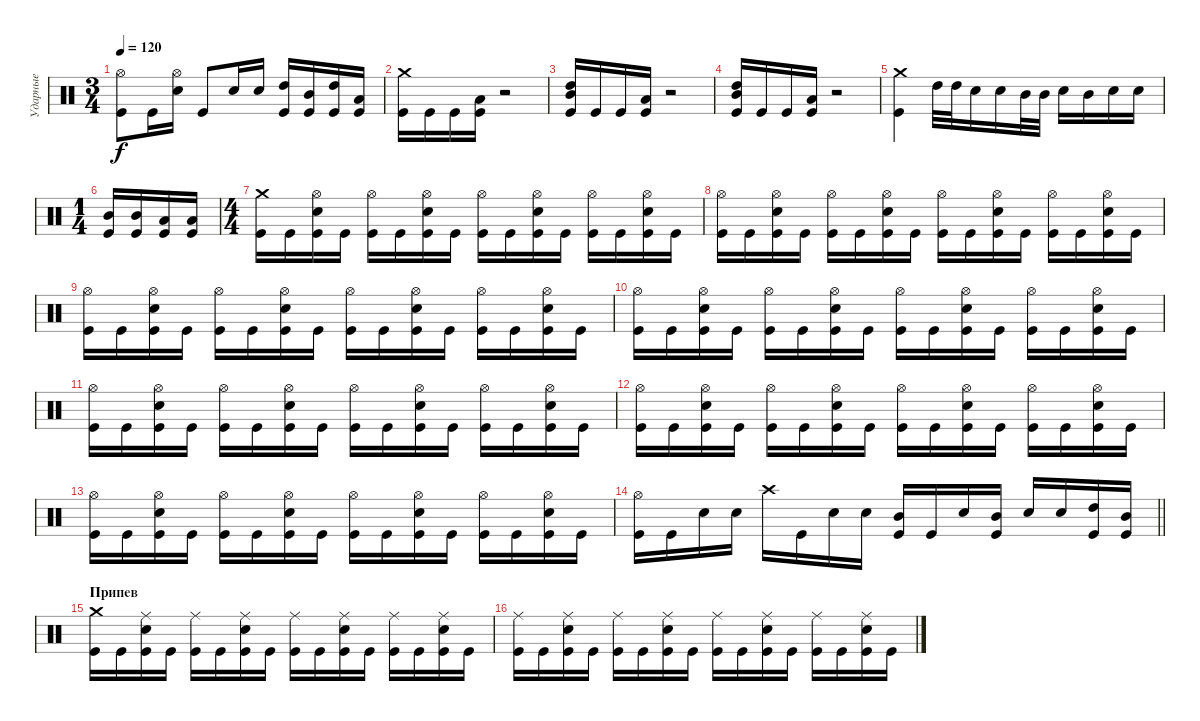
\track ("Ударные" "Ударные") {instrument percussion}
\staff {score}
\articulation defaults
\ts (3 4)
\tempo 120
\clef neutral
\ks c
("Kick (hit)" "Hi-Hat (open)").8{dy f} "Kick (hit)".16 ("Snare (hit) 2" "Hi-Hat (open)").16 "Kick (hit)".8 "Snare (hit) 2".16 "Snare (hit) 2".16 ("Kick (hit)" "High Tom (hit)").16 ("Kick (hit)" "Mid Tom (hit)").16 ("Kick (hit)" "High Tom (hit)").16 ("Kick (hit)" "Low Tom (hit)").16 |
("Kick (hit)" "Crash medium (hit)").16 "Kick (hit)".16 "Kick (hit)".16 ("Kick (hit)" "Low Tom (hit)").16 r.2 |
("Kick (hit)" "Mid Tom (hit)" "High Tom (hit)").16{bd 60} "Kick (hit)".16 "Kick (hit)".16 ("Kick (hit)" "Low Tom (hit)").16 r.2 |
("Kick (hit)" "Mid Tom (hit)" "High Tom (hit)").16{bd 60} "Kick (hit)".16 "Kick (hit)".16 ("Kick (hit)" "Low Tom (hit)").16 r.2 |
("Kick (hit)" "Crash medium (hit)").4 "High Tom (hit)".32 "High Tom (hit)".32 "Snare (hit) 2".16 "Snare (hit) 2".16 "Mid Tom (hit)".32 "Mid Tom (hit)".32 "Snare (hit) 2".16 "Mid Tom (hit)".16 "Snare (hit) 2".16 "Snare (hit) 2".16 |
\ts (1 4)
("Kick (hit)" "Mid Tom (hit)").16 ("Kick (hit)" "Mid Tom (hit)").16 ("Kick (hit)" "Low Tom (hit)").16 ("Kick (hit)" "Low Tom (hit)").16 |
\ts (4 4)
("Kick (hit)" "Crash medium (hit)").16 "Kick (hit)".16 ("Kick (hit)" "Snare (hit) 2" "Hi-Hat (open)").16 "Kick (hit)".16 ("Kick (hit)" "Hi-Hat (open)").16 "Kick (hit)".16 ("Kick (hit)" "Snare (hit) 2" "Hi-Hat (open)").16 "Kick (hit)".16 ("Kick (hit)" "Hi-Hat (open)").16 "Kick (hit)".16 ("Kick (hit)" "Snare (hit) 2" "Hi-Hat (open)").16 "Kick (hit)".16 ("Kick (hit)" "Hi-Hat (open)").16 "Kick (hit)".16 ("Kick (hit)" "Snare (hit) 2" "Hi-Hat (open)").16 "Kick (hit)".16 |
("Kick (hit)" "Hi-Hat (open)").16 "Kick (hit)".16 ("Kick (hit)" "Snare (hit) 2" "Hi-Hat (open)").16 "Kick (hit)".16 ("Kick (hit)" "Hi-Hat (open)").16 "Kick (hit)".16 ("Kick (hit)" "Snare (hit) 2" "Hi-Hat (open)").16 "Kick (hit)".16 ("Kick (hit)" "Hi-Hat (open)").16 "Kick (hit)".16 ("Kick (hit)" "Snare (hit) 2" "Hi-Hat (open)").16 "Kick (hit)".16 ("Kick (hit)" "Hi-Hat (open)").16 "Kick (hit)".16 ("Kick (hit)" "Snare (hit) 2" "Hi-Hat (open)").16 "Kick (hit)".16 |
("Kick (hit)" "Hi-Hat (open)").16 "Kick (hit)".16 ("Kick (hit)" "Snare (hit) 2" "Hi-Hat (open)").16 "Kick (hit)".16 ("Kick (hit)" "Hi-Hat (open)").16 "Kick (hit)".16 ("Kick (hit)" "Snare (hit) 2" "Hi-Hat (open)").16 "Kick (hit)".16 ("Kick (hit)" "Hi-Hat (open)").16 "Kick (hit)".16 ("Kick (hit)" "Snare (hit) 2" "Hi-Hat (open)").16 "Kick (hit)".16 ("Kick (hit)" "Hi-Hat (open)").16 "Kick (hit)".16 ("Kick (hit)" "Snare (hit) 2" "Hi-Hat (open)").16 "Kick (hit)".16 |
("Kick (hit)" "Hi-Hat (open)").16 "Kick (hit)".16 ("Kick (hit)" "Snare (hit) 2" "Hi-Hat (open)").16 "Kick (hit)".16 ("Kick (hit)" "Hi-Hat (open)").16 "Kick (hit)".16 ("Kick (hit)" "Snare (hit) 2" "Hi-Hat (open)").16 "Kick (hit)".16 ("Kick (hit)" "Hi-Hat (open)").16 "Kick (hit)".16 ("Kick (hit)" "Snare (hit) 2" "Hi-Hat (open)").16 "Kick (hit)".16 ("Kick (hit)" "Hi-Hat (open)").16 "Kick (hit)".16 ("Kick (hit)" "Snare (hit) 2" "Hi-Hat (open)").16 "Kick (hit)".16 |
("Kick (hit)" "Hi-Hat (open)").16 "Kick (hit)".16 ("Kick (hit)" "Snare (hit) 2" "Hi-Hat (open)").16 "Kick (hit)".16 ("Kick (hit)" "Hi-Hat (open)").16 "Kick (hit)".16 ("Kick (hit)" "Snare (hit) 2" "Hi-Hat (open)").16 "Kick (hit)".16 ("Kick (hit)" "Hi-Hat (open)").16 "Kick (hit)".16 ("Kick (hit)" "Snare (hit) 2" "Hi-Hat (open)").16 "Kick (hit)".16 ("Kick (hit)" "Hi-Hat (open)").16 "Kick (hit)".16 ("Kick (hit)" "Snare (hit) 2" "Hi-Hat (open)").16 "Kick (hit)".16 |
("Kick (hit)" "Hi-Hat (open)").16 "Kick (hit)".16 ("Kick (hit)" "Snare (hit) 2" "Hi-Hat (open)").16 "Kick (hit)".16 ("Kick (hit)" "Hi-Hat (open)").16 "Kick (hit)".16 ("Kick (hit)" "Snare (hit) 2" "Hi-Hat (open)").16 "Kick (hit)".16 ("Kick (hit)" "Hi-Hat (open)").16 "Kick (hit)".16 ("Kick (hit)" "Snare (hit) 2" "Hi-Hat (open)").16 "Kick (hit)".16 ("Kick (hit)" "Hi-Hat (open)").16 "Kick (hit)".16 ("Kick (hit)" "Snare (hit) 2" "Hi-Hat (open)").16 "Kick (hit)".16 |
("Kick (hit)" "Hi-Hat (open)").16 "Kick (hit)".16 ("Kick (hit)" "Snare (hit) 2" "Hi-Hat (open)").16 "Kick (hit)".16 ("Kick (hit)" "Hi-Hat (open)").16 "Kick (hit)".16 ("Kick (hit)" "Snare (hit) 2" "Hi-Hat (open)").16 "Kick (hit)".16 ("Kick (hit)" "Hi-Hat (open)").16 "Kick (hit)".16 ("Kick (hit)" "Snare (hit) 2" "Hi-Hat (open)").16 "Kick (hit)".16 ("Kick (hit)" "Hi-Hat (open)").16 "Kick (hit)".16 ("Kick (hit)" "Snare (hit) 2" "Hi-Hat (open)").16 "Kick (hit)".16 |
\barLineRight lightlight
("Kick (hit)" "Hi-Hat (open)").16 "Kick (hit)".16 "Snare (hit) 2".16 "Snare (hit) 2".16 "Crash high (hit)".16 "Kick (hit)".16 "Snare (hit) 2".16 "Snare (hit) 2".16 ("Kick (hit)" "Mid Tom (hit)").16 "Kick (hit)".16 "Snare (hit) 2".16 ("Kick (hit)" "Mid Tom (hit)").16 "Snare (hit) 2".16 "Snare (hit) 2".16 ("Kick (hit)" "High Tom (hit)").16 ("Kick (hit)" "Mid Tom (hit)").16 |
\section ("" "Припев")
("Kick (hit)" "Crash medium (hit)").16 "Kick (hit)".16 ("Kick (hit)" "Snare (hit) 2" "Ride (middle)").16 "Kick (hit)".16 ("Kick (hit)" "Ride (middle)").16 "Kick (hit)".16 ("Kick (hit)" "Snare (hit) 2" "Ride (middle)").16 "Kick (hit)".16 ("Kick (hit)" "Ride (middle)").16 "Kick (hit)".16 ("Kick (hit)" "Snare (hit) 2" "Ride (middle)").16 "Kick (hit)".16 ("Kick (hit)" "Ride (middle)").16 "Kick (hit)".16 ("Kick (hit)" "Snare (hit) 2" "Ride (middle)").16 "Kick (hit)".16 |
("Kick (hit)" "Ride (middle)").16 "Kick (hit)".16 ("Kick (hit)" "Snare (hit) 2" "Ride (middle)").16 "Kick (hit)".16 ("Kick (hit)" "Ride (middle)").16 "Kick (hit)".16 ("Kick (hit)" "Snare (hit) 2" "Ride (middle)").16 "Kick (hit)".16 ("Kick (hit)" "Ride (middle)").16 "Kick (hit)".16 ("Kick (hit)" "Snare (hit) 2" "Ride (middle)").16 "Kick (hit)".16 ("Kick (hit)" "Ride (middle)").16 "Kick (hit)".16 ("Kick (hit)" "Snare (hit) 2" "Ride (middle)").16 "Kick (hit)".16
